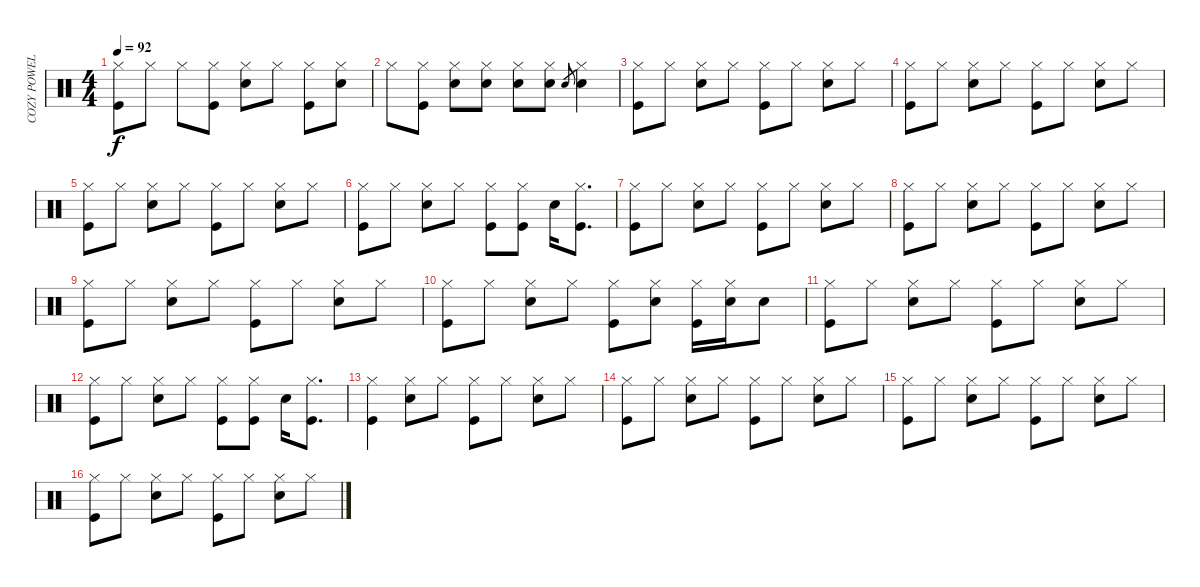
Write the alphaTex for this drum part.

\track ("COZY POWELL" "COZY POWEL") {instrument percussion}
\staff {score}
\articulation defaults
\ts (4 4)
\tempo 92
\clef neutral
\ks c
("Hi-Hat (closed)" "Kick (hit)").8{dy f} "Hi-Hat (closed)".8 "Hi-Hat (closed)".8 ("Hi-Hat (closed)" "Kick (hit)").8 ("Hi-Hat (closed)" "Snare (hit) 2").8 "Hi-Hat (closed)".8 ("Hi-Hat (closed)" "Kick (hit)").8 ("Hi-Hat (closed)" "Snare (hit) 2").8 |
"Hi-Hat (closed)".8 ("Hi-Hat (closed)" "Kick (hit)").8 ("Hi-Hat (closed)" "Snare (hit) 2").8 ("Hi-Hat (closed)" "Snare (hit) 2").8 ("Hi-Hat (closed)" "Snare (hit) 2").8 ("Hi-Hat (closed)" "Snare (hit) 2").8 "Snare (hit) 2".8{gr} ("Hi-Hat (closed)" "Snare (hit) 2").4 |
("Hi-Hat (closed)" "Kick (hit)").8 "Hi-Hat (closed)".8 ("Hi-Hat (closed)" "Snare (hit) 2").8 "Hi-Hat (closed)".8 ("Hi-Hat (closed)" "Kick (hit)").8 "Hi-Hat (closed)".8 ("Hi-Hat (closed)" "Snare (hit) 2").8 "Hi-Hat (closed)".8 |
("Hi-Hat (closed)" "Kick (hit)").8 "Hi-Hat (closed)".8 ("Hi-Hat (closed)" "Snare (hit) 2").8 "Hi-Hat (closed)".8 ("Hi-Hat (closed)" "Kick (hit)").8 "Hi-Hat (closed)".8 ("Hi-Hat (closed)" "Snare (hit) 2").8 "Hi-Hat (closed)".8 |
("Hi-Hat (closed)" "Kick (hit)").8 "Hi-Hat (closed)".8 ("Hi-Hat (closed)" "Snare (hit) 2").8 "Hi-Hat (closed)".8 ("Hi-Hat (closed)" "Kick (hit)").8 "Hi-Hat (closed)".8 ("Hi-Hat (closed)" "Snare (hit) 2").8 "Hi-Hat (closed)".8 |
("Hi-Hat (closed)" "Kick (hit)").8 "Hi-Hat (closed)".8 ("Hi-Hat (closed)" "Snare (hit) 2").8 "Hi-Hat (closed)".8 ("Hi-Hat (closed)" "Kick (hit)").8 ("Hi-Hat (closed)" "Kick (hit)").8 "Snare (hit) 2".16 ("Hi-Hat (closed)" "Kick (hit)").8{d} |
("Hi-Hat (closed)" "Kick (hit)").8 "Hi-Hat (closed)".8 ("Hi-Hat (closed)" "Snare (hit) 2").8 "Hi-Hat (closed)".8 ("Hi-Hat (closed)" "Kick (hit)").8 "Hi-Hat (closed)".8 ("Hi-Hat (closed)" "Snare (hit) 2").8 "Hi-Hat (closed)".8 |
("Hi-Hat (closed)" "Kick (hit)").8 "Hi-Hat (closed)".8 ("Hi-Hat (closed)" "Snare (hit) 2").8 "Hi-Hat (closed)".8 ("Hi-Hat (closed)" "Kick (hit)").8 "Hi-Hat (closed)".8 ("Hi-Hat (closed)" "Snare (hit) 2").8 "Hi-Hat (closed)".8 |
("Hi-Hat (closed)" "Kick (hit)").8 "Hi-Hat (closed)".8 ("Hi-Hat (closed)" "Snare (hit) 2").8 "Hi-Hat (closed)".8 ("Hi-Hat (closed)" "Kick (hit)").8 "Hi-Hat (closed)".8 ("Hi-Hat (closed)" "Snare (hit) 2").8 "Hi-Hat (closed)".8 |
("Hi-Hat (closed)" "Kick (hit)").8 "Hi-Hat (closed)".8 ("Hi-Hat (closed)" "Snare (hit) 2").8 "Hi-Hat (closed)".8 ("Hi-Hat (closed)" "Kick (hit)").8 ("Hi-Hat (closed)" "Snare (hit) 2").8 ("Hi-Hat (closed)" "Kick (hit)").16 ("Hi-Hat (closed)" "Snare (hit) 2").16 "Snare (hit) 2".8 |
("Hi-Hat (closed)" "Kick (hit)").8 "Hi-Hat (closed)".8 ("Hi-Hat (closed)" "Snare (hit) 2").8 "Hi-Hat (closed)".8 ("Hi-Hat (closed)" "Kick (hit)").8 "Hi-Hat (closed)".8 ("Hi-Hat (closed)" "Snare (hit) 2").8 "Hi-Hat (closed)".8 |
("Hi-Hat (closed)" "Kick (hit)").8 "Hi-Hat (closed)".8 ("Hi-Hat (closed)" "Snare (hit) 2").8 "Hi-Hat (closed)".8 ("Hi-Hat (closed)" "Kick (hit)").8 ("Hi-Hat (closed)" "Kick (hit)").8 "Snare (hit) 2".16 ("Hi-Hat (closed)" "Kick (hit)").8{d} |
("Hi-Hat (closed)" "Kick (hit)").4 ("Hi-Hat (closed)" "Snare (hit) 2").8 "Hi-Hat (closed)".8 ("Hi-Hat (closed)" "Kick (hit)").8 "Hi-Hat (closed)".8 ("Hi-Hat (closed)" "Snare (hit) 2").8 "Hi-Hat (closed)".8 |
("Hi-Hat (closed)" "Kick (hit)").8 "Hi-Hat (closed)".8 ("Hi-Hat (closed)" "Snare (hit) 2").8 "Hi-Hat (closed)".8 ("Hi-Hat (closed)" "Kick (hit)").8 "Hi-Hat (closed)".8 ("Hi-Hat (closed)" "Snare (hit) 2").8 "Hi-Hat (closed)".8 |
("Hi-Hat (closed)" "Kick (hit)").8 "Hi-Hat (closed)".8 ("Hi-Hat (closed)" "Snare (hit) 2").8 "Hi-Hat (closed)".8 ("Hi-Hat (closed)" "Kick (hit)").8 "Hi-Hat (closed)".8 ("Hi-Hat (closed)" "Snare (hit) 2").8 "Hi-Hat (closed)".8 |
("Hi-Hat (closed)" "Kick (hit)").8 "Hi-Hat (closed)".8 ("Hi-Hat (closed)" "Snare (hit) 2").8 "Hi-Hat (closed)".8 ("Hi-Hat (closed)" "Kick (hit)").8 "Hi-Hat (closed)".8 ("Hi-Hat (closed)" "Snare (hit) 2").8 "Hi-Hat (closed)".8
